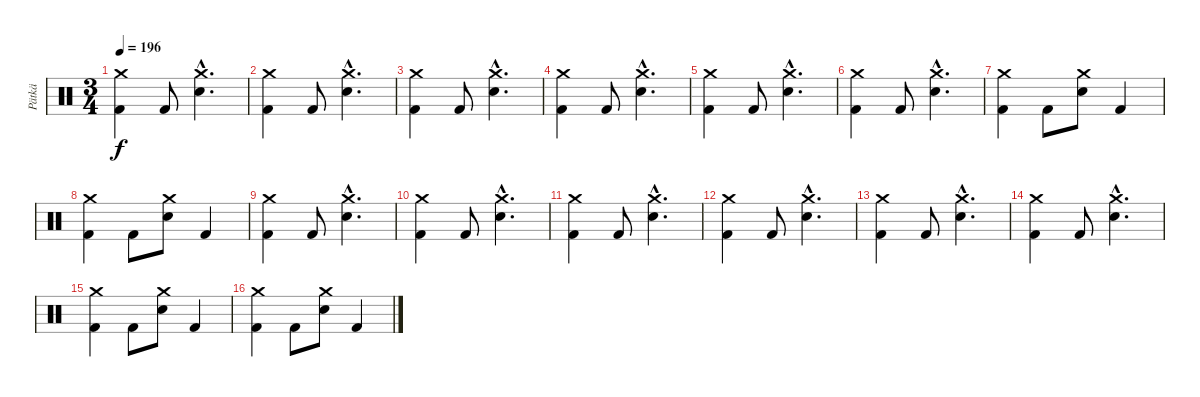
\track ("Pätkä" "Pätkä") {instrument percussion}
\staff {score}
\articulation defaults
\ts (3 4)
\tempo 196
\clef neutral
\ks c
("Crash medium (hit)" "Kick (hit) 2").4{dy f} "Kick (hit) 2".8 ("Crash medium (hit)"{hac} "Electric Snare (hit)"{hac}).4{d} |
("Crash medium (hit)" "Kick (hit) 2").4 "Kick (hit) 2".8 ("Crash medium (hit)"{hac} "Electric Snare (hit)"{hac}).4{d} |
("Crash medium (hit)" "Kick (hit) 2").4 "Kick (hit) 2".8 ("Crash medium (hit)"{hac} "Electric Snare (hit)"{hac}).4{d} |
("Crash medium (hit)" "Kick (hit) 2").4 "Kick (hit) 2".8 ("Crash medium (hit)"{hac} "Electric Snare (hit)"{hac}).4{d} |
("Crash medium (hit)" "Kick (hit) 2").4 "Kick (hit) 2".8 ("Crash medium (hit)"{hac} "Electric Snare (hit)"{hac}).4{d} |
("Crash medium (hit)" "Kick (hit) 2").4 "Kick (hit) 2".8 ("Crash medium (hit)"{hac} "Electric Snare (hit)"{hac}).4{d} |
("Crash medium (hit)" "Kick (hit) 2").4 "Kick (hit) 2".8 ("Crash medium (hit)" "Electric Snare (hit)").8 "Kick (hit) 2".4 |
("Crash medium (hit)" "Kick (hit) 2").4 "Kick (hit) 2".8 ("Crash medium (hit)" "Electric Snare (hit)").8 "Kick (hit) 2".4 |
("Crash medium (hit)" "Kick (hit) 2").4 "Kick (hit) 2".8 ("Crash medium (hit)"{hac} "Electric Snare (hit)"{hac}).4{d} |
("Crash medium (hit)" "Kick (hit) 2").4 "Kick (hit) 2".8 ("Crash medium (hit)"{hac} "Electric Snare (hit)"{hac}).4{d} |
("Crash medium (hit)" "Kick (hit) 2").4 "Kick (hit) 2".8 ("Crash medium (hit)"{hac} "Electric Snare (hit)"{hac}).4{d} |
("Crash medium (hit)" "Kick (hit) 2").4 "Kick (hit) 2".8 ("Crash medium (hit)"{hac} "Electric Snare (hit)"{hac}).4{d} |
("Crash medium (hit)" "Kick (hit) 2").4 "Kick (hit) 2".8 ("Crash medium (hit)"{hac} "Electric Snare (hit)"{hac}).4{d} |
("Crash medium (hit)" "Kick (hit) 2").4 "Kick (hit) 2".8 ("Crash medium (hit)"{hac} "Electric Snare (hit)"{hac}).4{d} |
("Crash medium (hit)" "Kick (hit) 2").4 "Kick (hit) 2".8 ("Crash medium (hit)" "Electric Snare (hit)").8 "Kick (hit) 2".4 |
("Crash medium (hit)" "Kick (hit) 2").4 "Kick (hit) 2".8 ("Crash medium (hit)" "Electric Snare (hit)").8 "Kick (hit) 2".4
